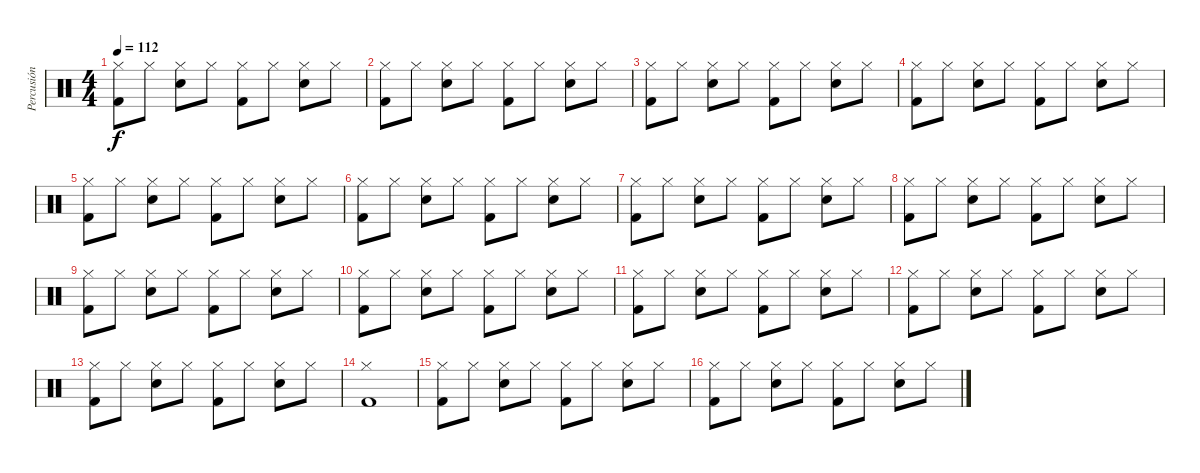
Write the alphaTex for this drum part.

\track ("Percusión" "Percusión") {instrument percussion}
\staff {score}
\articulation defaults
\ts (4 4)
\tempo 112
\clef neutral
\ks c
("Hi-Hat (closed)" "Kick (hit) 2").8{dy f} "Hi-Hat (closed)".8 ("Hi-Hat (closed)" "Snare (hit) 2").8 "Hi-Hat (closed)".8 ("Hi-Hat (closed)" "Kick (hit) 2").8 "Hi-Hat (closed)".8 ("Hi-Hat (closed)" "Snare (hit) 2").8 "Hi-Hat (closed)".8 |
("Hi-Hat (closed)" "Kick (hit) 2").8 "Hi-Hat (closed)".8 ("Hi-Hat (closed)" "Snare (hit) 2").8 "Hi-Hat (closed)".8 ("Hi-Hat (closed)" "Kick (hit) 2").8 "Hi-Hat (closed)".8 ("Hi-Hat (closed)" "Snare (hit) 2").8 "Hi-Hat (closed)".8 |
("Hi-Hat (closed)" "Kick (hit) 2").8 "Hi-Hat (closed)".8 ("Hi-Hat (closed)" "Snare (hit) 2").8 "Hi-Hat (closed)".8 ("Hi-Hat (closed)" "Kick (hit) 2").8 "Hi-Hat (closed)".8 ("Hi-Hat (closed)" "Snare (hit) 2").8 "Hi-Hat (closed)".8 |
("Hi-Hat (closed)" "Kick (hit) 2").8 "Hi-Hat (closed)".8 ("Hi-Hat (closed)" "Snare (hit) 2").8 "Hi-Hat (closed)".8 ("Hi-Hat (closed)" "Kick (hit) 2").8 "Hi-Hat (closed)".8 ("Hi-Hat (closed)" "Snare (hit) 2").8 "Hi-Hat (closed)".8 |
("Hi-Hat (closed)" "Kick (hit) 2").8 "Hi-Hat (closed)".8 ("Hi-Hat (closed)" "Snare (hit) 2").8 "Hi-Hat (closed)".8 ("Hi-Hat (closed)" "Kick (hit) 2").8 "Hi-Hat (closed)".8 ("Hi-Hat (closed)" "Snare (hit) 2").8 "Hi-Hat (closed)".8 |
("Hi-Hat (closed)" "Kick (hit) 2").8 "Hi-Hat (closed)".8 ("Hi-Hat (closed)" "Snare (hit) 2").8 "Hi-Hat (closed)".8 ("Hi-Hat (closed)" "Kick (hit) 2").8 "Hi-Hat (closed)".8 ("Hi-Hat (closed)" "Snare (hit) 2").8 "Hi-Hat (closed)".8 |
("Hi-Hat (closed)" "Kick (hit) 2").8 "Hi-Hat (closed)".8 ("Hi-Hat (closed)" "Snare (hit) 2").8 "Hi-Hat (closed)".8 ("Hi-Hat (closed)" "Kick (hit) 2").8 "Hi-Hat (closed)".8 ("Hi-Hat (closed)" "Snare (hit) 2").8 "Hi-Hat (closed)".8 |
("Hi-Hat (closed)" "Kick (hit) 2").8 "Hi-Hat (closed)".8 ("Hi-Hat (closed)" "Snare (hit) 2").8 "Hi-Hat (closed)".8 ("Hi-Hat (closed)" "Kick (hit) 2").8 "Hi-Hat (closed)".8 ("Hi-Hat (closed)" "Snare (hit) 2").8 "Hi-Hat (closed)".8 |
("Hi-Hat (closed)" "Kick (hit) 2").8 "Hi-Hat (closed)".8 ("Hi-Hat (closed)" "Snare (hit) 2").8 "Hi-Hat (closed)".8 ("Hi-Hat (closed)" "Kick (hit) 2").8 "Hi-Hat (closed)".8 ("Hi-Hat (closed)" "Snare (hit) 2").8 "Hi-Hat (closed)".8 |
("Hi-Hat (closed)" "Kick (hit) 2").8 "Hi-Hat (closed)".8 ("Hi-Hat (closed)" "Snare (hit) 2").8 "Hi-Hat (closed)".8 ("Hi-Hat (closed)" "Kick (hit) 2").8 "Hi-Hat (closed)".8 ("Hi-Hat (closed)" "Snare (hit) 2").8 "Hi-Hat (closed)".8 |
("Hi-Hat (closed)" "Kick (hit) 2").8 "Hi-Hat (closed)".8 ("Hi-Hat (closed)" "Snare (hit) 2").8 "Hi-Hat (closed)".8 ("Hi-Hat (closed)" "Kick (hit) 2").8 "Hi-Hat (closed)".8 ("Hi-Hat (closed)" "Snare (hit) 2").8 "Hi-Hat (closed)".8 |
("Hi-Hat (closed)" "Kick (hit) 2").8 "Hi-Hat (closed)".8 ("Hi-Hat (closed)" "Snare (hit) 2").8 "Hi-Hat (closed)".8 ("Hi-Hat (closed)" "Kick (hit) 2").8 "Hi-Hat (closed)".8 ("Hi-Hat (closed)" "Snare (hit) 2").8 "Hi-Hat (closed)".8 |
("Hi-Hat (closed)" "Kick (hit) 2").8 "Hi-Hat (closed)".8 ("Hi-Hat (closed)" "Snare (hit) 2").8 "Hi-Hat (closed)".8 ("Hi-Hat (closed)" "Kick (hit) 2").8 "Hi-Hat (closed)".8 ("Hi-Hat (closed)" "Snare (hit) 2").8 "Hi-Hat (closed)".8 |
("Hi-Hat (closed)" "Kick (hit) 2").1 |
("Hi-Hat (closed)" "Kick (hit) 2").8 "Hi-Hat (closed)".8 ("Hi-Hat (closed)" "Snare (hit) 2").8 "Hi-Hat (closed)".8 ("Hi-Hat (closed)" "Kick (hit) 2").8 "Hi-Hat (closed)".8 ("Hi-Hat (closed)" "Snare (hit) 2").8 "Hi-Hat (closed)".8 |
("Hi-Hat (closed)" "Kick (hit) 2").8 "Hi-Hat (closed)".8 ("Hi-Hat (closed)" "Snare (hit) 2").8 "Hi-Hat (closed)".8 ("Hi-Hat (closed)" "Kick (hit) 2").8 "Hi-Hat (closed)".8 ("Hi-Hat (closed)" "Snare (hit) 2").8 "Hi-Hat (closed)".8
